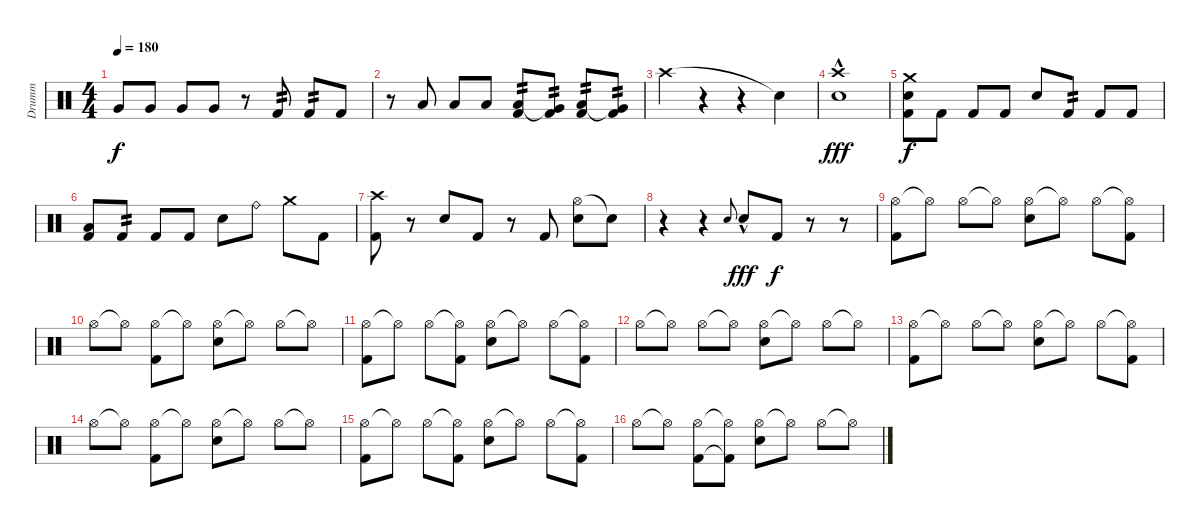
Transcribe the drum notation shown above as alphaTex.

\track ("Drumm" "Drumm") {instrument percussion}
\staff {score}
\articulation defaults
\ts (4 4)
\tempo 180
\clef neutral
\ks c "Very Low Tom (hit)".8{dy f} "Very Low Tom (hit)".8 "Very Low Tom (hit)".8 "Very Low Tom (hit)".8
r.8 "Kick (hit) 2".8{tp 2} "Kick (hit) 2".8{tp 2} "Kick (hit) 2".8 |
r.8 "Low Floor Tom (hit)".8 "Low Floor Tom (hit)".8 "Low Floor Tom (hit)".8 ("Low Floor Tom (hit)" "Kick (hit) 2").8{tp 2} ("Very Low Tom (hit)"{t} "Kick (hit) 2").8{tp 2} ("Low Floor Tom (hit)" "Kick (hit) 2").8{tp 2} ("Very Low Tom (hit)"{t} "Kick (hit) 2").8{tp 2} |
"Crash high (hit)".4 r.4 r.4 "Snare (hit)"{t}.4 |
("Crash high (hit)" "Snare (hit) 2"{hac}).1{dy fff} |
("Crash medium (hit)" "Snare (hit) 2" "Kick (hit) 2").8{dy f} "Kick (hit) 2".8 "Kick (hit) 2".8 "Kick (hit) 2".8 "Snare (hit) 2".8 "Kick (hit) 2".8{tp 2} "Kick (hit) 2".8 "Kick (hit) 2".8 |
("Low Floor Tom (hit)" "Kick (hit) 2").8 "Kick (hit) 2".8{tp 2} "Kick (hit) 2".8 "Kick (hit) 2".8 "Snare (hit) 2".8 "Ride (bell)".8 "Crash medium (hit)".8 "Kick (hit) 2".8 |
("Crash high (hit)" "Kick (hit) 2").8 r.8 "Snare (hit) 2".8 "Kick (hit) 2".8 r.8 "Kick (hit) 2".8 ("Hi-Hat (open)" "Snare (hit) 2").8 "Snare (hit) 2"{t}.8 |
r.4 r.4 "Snare (hit) 2".8{gr onbeat} "Snare (hit) 2"{hac}.8{dy fff} "Kick (hit) 2".8{dy f} r.8 r.8 |
("Hi-Hat (open)" "Kick (hit) 2").8 "Hi-Hat (open)"{t}.8 "Hi-Hat (open)".8 "Hi-Hat (open)"{t}.8 ("Hi-Hat (open)" "Snare (hit) 2").8 "Hi-Hat (open)"{t}.8 "Hi-Hat (open)".8 ("Hi-Hat (open)"{t} "Kick (hit) 2").8 |
"Hi-Hat (open)".8 "Hi-Hat (open)"{t}.8 ("Hi-Hat (open)" "Kick (hit) 2").8 "Hi-Hat (open)"{t}.8 ("Hi-Hat (open)" "Snare (hit) 2").8 "Hi-Hat (open)"{t}.8 "Hi-Hat (open)".8 "Hi-Hat (open)"{t}.8 |
("Hi-Hat (open)" "Kick (hit) 2").8 "Hi-Hat (open)"{t}.8 "Hi-Hat (open)".8 ("Hi-Hat (open)"{t} "Kick (hit) 2").8 ("Hi-Hat (open)" "Snare (hit) 2").8 "Hi-Hat (open)"{t}.8 "Hi-Hat (open)".8 ("Hi-Hat (open)"{t} "Kick (hit) 2").8 |
"Hi-Hat (open)".8 "Hi-Hat (open)"{t}.8 "Hi-Hat (open)".8 "Hi-Hat (open)"{t}.8 ("Hi-Hat (open)" "Snare (hit) 2").8 "Hi-Hat (open)"{t}.8 "Hi-Hat (open)".8 "Hi-Hat (open)"{t}.8 |
("Hi-Hat (open)" "Kick (hit) 2").8 "Hi-Hat (open)"{t}.8 "Hi-Hat (open)".8 "Hi-Hat (open)"{t}.8 ("Hi-Hat (open)" "Snare (hit) 2").8 "Hi-Hat (open)"{t}.8 "Hi-Hat (open)".8 ("Hi-Hat (open)"{t} "Kick (hit) 2").8 |
"Hi-Hat (open)".8 "Hi-Hat (open)"{t}.8 ("Hi-Hat (open)" "Kick (hit) 2").8 "Hi-Hat (open)"{t}.8 ("Hi-Hat (open)" "Snare (hit) 2").8 "Hi-Hat (open)"{t}.8 "Hi-Hat (open)".8 "Hi-Hat (open)"{t}.8 |
("Hi-Hat (open)" "Kick (hit) 2").8 "Hi-Hat (open)"{t}.8 "Hi-Hat (open)".8 ("Hi-Hat (open)"{t} "Kick (hit) 2").8 ("Hi-Hat (open)" "Snare (hit) 2").8 "Hi-Hat (open)"{t}.8 "Hi-Hat (open)".8 ("Hi-Hat (open)"{t} "Kick (hit) 2").8 |
"Hi-Hat (open)".8 "Hi-Hat (open)"{t}.8 ("Hi-Hat (open)" "Kick (hit) 2").8 ("Hi-Hat (open)"{t} "Kick (hit) 2"{t}).8 ("Hi-Hat (open)" "Snare (hit) 2").8 "Hi-Hat (open)"{t}.8 "Hi-Hat (open)".8 "Hi-Hat (open)"{t}.8
